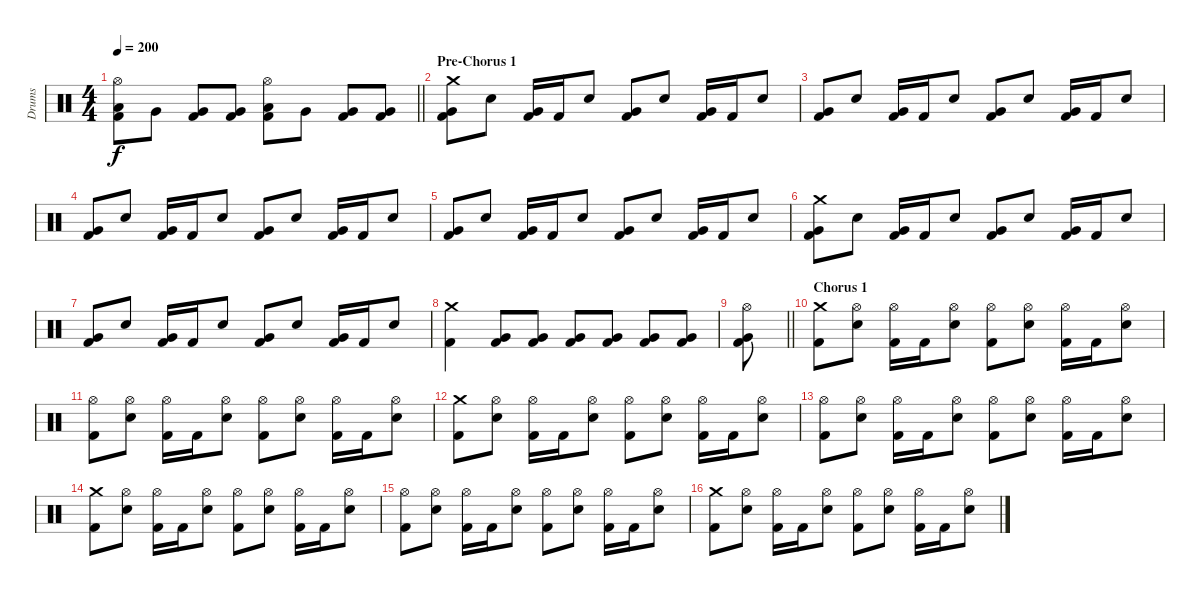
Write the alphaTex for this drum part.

\track ("Drums" "Drums") {instrument percussion}
\staff {score}
\articulation defaults
\ts (4 4)
\tempo 200
\clef neutral
\barLineRight lightlight
\ks c
("Hi-Hat (open)" "Low Tom (hit)" "Kick (hit) 2").8{dy f} "Very Low Tom (hit)".8 ("Very Low Tom (hit)" "Kick (hit) 2").8 ("Very Low Tom (hit)" "Kick (hit) 2").8 ("Hi-Hat (open)" "Low Tom (hit)" "Kick (hit) 2").8 "Very Low Tom (hit)".8 ("Very Low Tom (hit)" "Kick (hit) 2").8 ("Very Low Tom (hit)" "Kick (hit) 2").8 |
\section ("" "Pre-Chorus 1")
("Crash medium (hit)" "Very Low Tom (hit)" "Kick (hit) 2").8 "Electric Snare (hit)".8 ("Very Low Tom (hit)" "Kick (hit) 2").16 "Kick (hit) 2".16 "Electric Snare (hit)".8 ("Very Low Tom (hit)" "Kick (hit) 2").8 "Electric Snare (hit)".8 ("Very Low Tom (hit)" "Kick (hit) 2").16 "Kick (hit) 2".16 "Electric Snare (hit)".8 |
("Very Low Tom (hit)" "Kick (hit) 2").8 "Electric Snare (hit)".8 ("Very Low Tom (hit)" "Kick (hit) 2").16 "Kick (hit) 2".16 "Electric Snare (hit)".8 ("Very Low Tom (hit)" "Kick (hit) 2").8 "Electric Snare (hit)".8 ("Very Low Tom (hit)" "Kick (hit) 2").16 "Kick (hit) 2".16 "Electric Snare (hit)".8 |
("Very Low Tom (hit)" "Kick (hit) 2").8 "Electric Snare (hit)".8 ("Very Low Tom (hit)" "Kick (hit) 2").16 "Kick (hit) 2".16 "Electric Snare (hit)".8 ("Very Low Tom (hit)" "Kick (hit) 2").8 "Electric Snare (hit)".8 ("Very Low Tom (hit)" "Kick (hit) 2").16 "Kick (hit) 2".16 "Electric Snare (hit)".8 |
("Very Low Tom (hit)" "Kick (hit) 2").8 "Electric Snare (hit)".8 ("Very Low Tom (hit)" "Kick (hit) 2").16 "Kick (hit) 2".16 "Electric Snare (hit)".8 ("Very Low Tom (hit)" "Kick (hit) 2").8 "Electric Snare (hit)".8 ("Very Low Tom (hit)" "Kick (hit) 2").16 "Kick (hit) 2".16 "Electric Snare (hit)".8 |
("Crash medium (hit)" "Very Low Tom (hit)" "Kick (hit) 2").8 "Electric Snare (hit)".8 ("Very Low Tom (hit)" "Kick (hit) 2").16 "Kick (hit) 2".16 "Electric Snare (hit)".8 ("Very Low Tom (hit)" "Kick (hit) 2").8 "Electric Snare (hit)".8 ("Very Low Tom (hit)" "Kick (hit) 2").16 "Kick (hit) 2".16 "Electric Snare (hit)".8 |
("Very Low Tom (hit)" "Kick (hit) 2").8 "Electric Snare (hit)".8 ("Very Low Tom (hit)" "Kick (hit) 2").16 "Kick (hit) 2".16 "Electric Snare (hit)".8 ("Very Low Tom (hit)" "Kick (hit) 2").8 "Electric Snare (hit)".8 ("Very Low Tom (hit)" "Kick (hit) 2").16 "Kick (hit) 2".16 "Electric Snare (hit)".8 |
("Crash medium (hit)" "Kick (hit) 2").4 ("Very Low Tom (hit)" "Kick (hit) 2").8 ("Very Low Tom (hit)" "Kick (hit) 2").8 ("Very Low Tom (hit)" "Kick (hit) 2").8 ("Very Low Tom (hit)" "Kick (hit) 2").8 ("Very Low Tom (hit)" "Kick (hit) 2").8 ("Very Low Tom (hit)" "Kick (hit) 2").8 |
\barLineRight lightlight
("Hi-Hat (open)" "Very Low Tom (hit)" "Kick (hit) 2").8 |
\section ("" "Chorus 1")
("Crash medium (hit)" "Kick (hit) 2").8 ("Hi-Hat (open)" "Electric Snare (hit)").8 ("Hi-Hat (open)" "Kick (hit) 2").16 "Kick (hit) 2".16 ("Hi-Hat (open)" "Electric Snare (hit)").8 ("Hi-Hat (open)" "Kick (hit) 2").8 ("Hi-Hat (open)" "Electric Snare (hit)").8 ("Hi-Hat (open)" "Kick (hit) 2").16 "Kick (hit) 2".16 ("Hi-Hat (open)" "Electric Snare (hit)").8 |
("Hi-Hat (open)" "Kick (hit) 2").8 ("Hi-Hat (open)" "Electric Snare (hit)").8 ("Hi-Hat (open)" "Kick (hit) 2").16 "Kick (hit) 2".16 ("Hi-Hat (open)" "Electric Snare (hit)").8 ("Hi-Hat (open)" "Kick (hit) 2").8 ("Hi-Hat (open)" "Electric Snare (hit)").8 ("Hi-Hat (open)" "Kick (hit) 2").16 "Kick (hit) 2".16 ("Hi-Hat (open)" "Electric Snare (hit)").8 |
("Crash medium (hit)" "Kick (hit) 2").8 ("Hi-Hat (open)" "Electric Snare (hit)").8 ("Hi-Hat (open)" "Kick (hit) 2").16 "Kick (hit) 2".16 ("Hi-Hat (open)" "Electric Snare (hit)").8 ("Hi-Hat (open)" "Kick (hit) 2").8 ("Hi-Hat (open)" "Electric Snare (hit)").8 ("Hi-Hat (open)" "Kick (hit) 2").16 "Kick (hit) 2".16 ("Hi-Hat (open)" "Electric Snare (hit)").8 |
("Hi-Hat (open)" "Kick (hit) 2").8 ("Hi-Hat (open)" "Electric Snare (hit)").8 ("Hi-Hat (open)" "Kick (hit) 2").16 "Kick (hit) 2".16 ("Hi-Hat (open)" "Electric Snare (hit)").8 ("Hi-Hat (open)" "Kick (hit) 2").8 ("Hi-Hat (open)" "Electric Snare (hit)").8 ("Hi-Hat (open)" "Kick (hit) 2").16 "Kick (hit) 2".16 ("Hi-Hat (open)" "Electric Snare (hit)").8 |
("Crash medium (hit)" "Kick (hit) 2").8 ("Hi-Hat (open)" "Electric Snare (hit)").8 ("Hi-Hat (open)" "Kick (hit) 2").16 "Kick (hit) 2".16 ("Hi-Hat (open)" "Electric Snare (hit)").8 ("Hi-Hat (open)" "Kick (hit) 2").8 ("Hi-Hat (open)" "Electric Snare (hit)").8 ("Hi-Hat (open)" "Kick (hit) 2").16 "Kick (hit) 2".16 ("Hi-Hat (open)" "Electric Snare (hit)").8 |
("Hi-Hat (open)" "Kick (hit) 2").8 ("Hi-Hat (open)" "Electric Snare (hit)").8 ("Hi-Hat (open)" "Kick (hit) 2").16 "Kick (hit) 2".16 ("Hi-Hat (open)" "Electric Snare (hit)").8 ("Hi-Hat (open)" "Kick (hit) 2").8 ("Hi-Hat (open)" "Electric Snare (hit)").8 ("Hi-Hat (open)" "Kick (hit) 2").16 "Kick (hit) 2".16 ("Hi-Hat (open)" "Electric Snare (hit)").8 |
("Crash medium (hit)" "Kick (hit) 2").8 ("Hi-Hat (open)" "Electric Snare (hit)").8 ("Hi-Hat (open)" "Kick (hit) 2").16 "Kick (hit) 2".16 ("Hi-Hat (open)" "Electric Snare (hit)").8 ("Hi-Hat (open)" "Kick (hit) 2").8 ("Hi-Hat (open)" "Electric Snare (hit)").8 ("Hi-Hat (open)" "Kick (hit) 2").16 "Kick (hit) 2".16 ("Hi-Hat (open)" "Electric Snare (hit)").8
